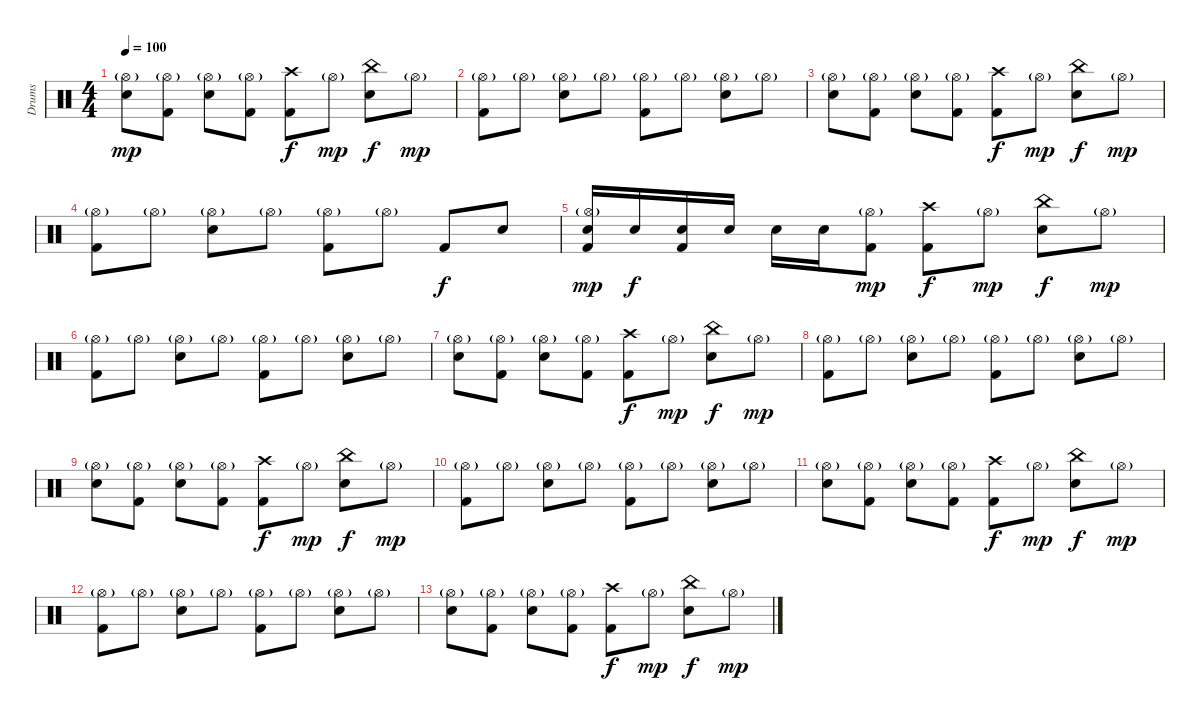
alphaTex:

\track ("Drums" "Drums") {instrument percussion}
\staff {score}
\articulation defaults
\ts (4 4)
\tempo 100
\clef neutral
\ks c
("Snare (hit) 2" "Hi-Hat (open)"{g}).8{dy mp} ("Hi-Hat (open)"{g} "Kick (hit) 2").8 ("Snare (hit) 2" "Hi-Hat (open)"{g}).8 ("Hi-Hat (open)"{g} "Kick (hit) 2").8 ("Crash high (hit)" "Kick (hit) 2").8{dy f} "Hi-Hat (open)"{g}.8{dy mp} ("Snare (hit) 2" "China (hit)").8{dy f} "Hi-Hat (open)"{g}.8{dy mp} |
("Hi-Hat (open)"{g} "Kick (hit) 2").8 "Hi-Hat (open)"{g}.8 ("Snare (hit) 2" "Hi-Hat (open)"{g}).8 "Hi-Hat (open)"{g}.8 ("Hi-Hat (open)"{g} "Kick (hit) 2").8 "Hi-Hat (open)"{g}.8 ("Snare (hit) 2" "Hi-Hat (open)"{g}).8 "Hi-Hat (open)"{g}.8 |
("Snare (hit) 2" "Hi-Hat (open)"{g}).8 ("Hi-Hat (open)"{g} "Kick (hit) 2").8 ("Snare (hit) 2" "Hi-Hat (open)"{g}).8 ("Hi-Hat (open)"{g} "Kick (hit) 2").8 ("Crash high (hit)" "Kick (hit) 2").8{dy f} "Hi-Hat (open)"{g}.8{dy mp} ("Snare (hit) 2" "China (hit)").8{dy f} "Hi-Hat (open)"{g}.8{dy mp} |
("Hi-Hat (open)"{g} "Kick (hit) 2").8 "Hi-Hat (open)"{g}.8 ("Snare (hit) 2" "Hi-Hat (open)"{g}).8 "Hi-Hat (open)"{g}.8 ("Hi-Hat (open)"{g} "Kick (hit) 2").8 "Hi-Hat (open)"{g}.8 "Kick (hit) 2".8{dy f} "Snare (hit) 2".8 |
("Snare (hit) 2" "Hi-Hat (open)"{g} "Kick (hit) 2").16{dy mp} "Snare (hit) 2".16{dy f} ("Snare (hit) 2" "Kick (hit) 2").16 "Snare (hit) 2".16 "Snare (hit) 2".16 "Snare (hit) 2".16 ("Hi-Hat (open)"{g} "Kick (hit) 2").8{dy mp} ("Crash high (hit)" "Kick (hit) 2").8{dy f} "Hi-Hat (open)"{g}.8{dy mp} ("Snare (hit) 2" "China (hit)").8{dy f} "Hi-Hat (open)"{g}.8{dy mp} |
("Hi-Hat (open)"{g} "Kick (hit) 2").8 "Hi-Hat (open)"{g}.8 ("Snare (hit) 2" "Hi-Hat (open)"{g}).8 "Hi-Hat (open)"{g}.8 ("Hi-Hat (open)"{g} "Kick (hit) 2").8 "Hi-Hat (open)"{g}.8 ("Snare (hit) 2" "Hi-Hat (open)"{g}).8 "Hi-Hat (open)"{g}.8 |
("Snare (hit) 2" "Hi-Hat (open)"{g}).8 ("Hi-Hat (open)"{g} "Kick (hit) 2").8 ("Snare (hit) 2" "Hi-Hat (open)"{g}).8 ("Hi-Hat (open)"{g} "Kick (hit) 2").8 ("Crash high (hit)" "Kick (hit) 2").8{dy f} "Hi-Hat (open)"{g}.8{dy mp} ("Snare (hit) 2" "China (hit)").8{dy f} "Hi-Hat (open)"{g}.8{dy mp} |
("Hi-Hat (open)"{g} "Kick (hit) 2").8 "Hi-Hat (open)"{g}.8 ("Snare (hit) 2" "Hi-Hat (open)"{g}).8 "Hi-Hat (open)"{g}.8 ("Hi-Hat (open)"{g} "Kick (hit) 2").8 "Hi-Hat (open)"{g}.8 ("Snare (hit) 2" "Hi-Hat (open)"{g}).8 "Hi-Hat (open)"{g}.8 |
("Snare (hit) 2" "Hi-Hat (open)"{g}).8{volume 10} ("Hi-Hat (open)"{g} "Kick (hit) 2").8 ("Snare (hit) 2" "Hi-Hat (open)"{g}).8 ("Hi-Hat (open)"{g} "Kick (hit) 2").8 ("Crash high (hit)" "Kick (hit) 2").8{dy f} "Hi-Hat (open)"{g}.8{dy mp} ("Snare (hit) 2" "China (hit)").8{dy f} "Hi-Hat (open)"{g}.8{dy mp} |
("Hi-Hat (open)"{g} "Kick (hit) 2").8{volume 8} "Hi-Hat (open)"{g}.8 ("Snare (hit) 2" "Hi-Hat (open)"{g}).8 "Hi-Hat (open)"{g}.8 ("Hi-Hat (open)"{g} "Kick (hit) 2").8 "Hi-Hat (open)"{g}.8 ("Snare (hit) 2" "Hi-Hat (open)"{g}).8 "Hi-Hat (open)"{g}.8 |
("Snare (hit) 2" "Hi-Hat (open)"{g}).8{volume 6} ("Hi-Hat (open)"{g} "Kick (hit) 2").8 ("Snare (hit) 2" "Hi-Hat (open)"{g}).8 ("Hi-Hat (open)"{g} "Kick (hit) 2").8 ("Crash high (hit)" "Kick (hit) 2").8{dy f} "Hi-Hat (open)"{g}.8{dy mp} ("Snare (hit) 2" "China (hit)").8{dy f} "Hi-Hat (open)"{g}.8{dy mp} |
("Hi-Hat (open)"{g} "Kick (hit) 2").8{volume 4} "Hi-Hat (open)"{g}.8 ("Snare (hit) 2" "Hi-Hat (open)"{g}).8 "Hi-Hat (open)"{g}.8 ("Hi-Hat (open)"{g} "Kick (hit) 2").8 "Hi-Hat (open)"{g}.8 ("Snare (hit) 2" "Hi-Hat (open)"{g}).8 "Hi-Hat (open)"{g}.8 |
("Snare (hit) 2" "Hi-Hat (open)"{g}).8{volume 1} ("Hi-Hat (open)"{g} "Kick (hit) 2").8 ("Snare (hit) 2" "Hi-Hat (open)"{g}).8 ("Hi-Hat (open)"{g} "Kick (hit) 2").8 ("Crash high (hit)" "Kick (hit) 2").8{dy f} "Hi-Hat (open)"{g}.8{dy mp} ("Snare (hit) 2" "China (hit)").8{dy f} "Hi-Hat (open)"{g}.8{dy mp}
